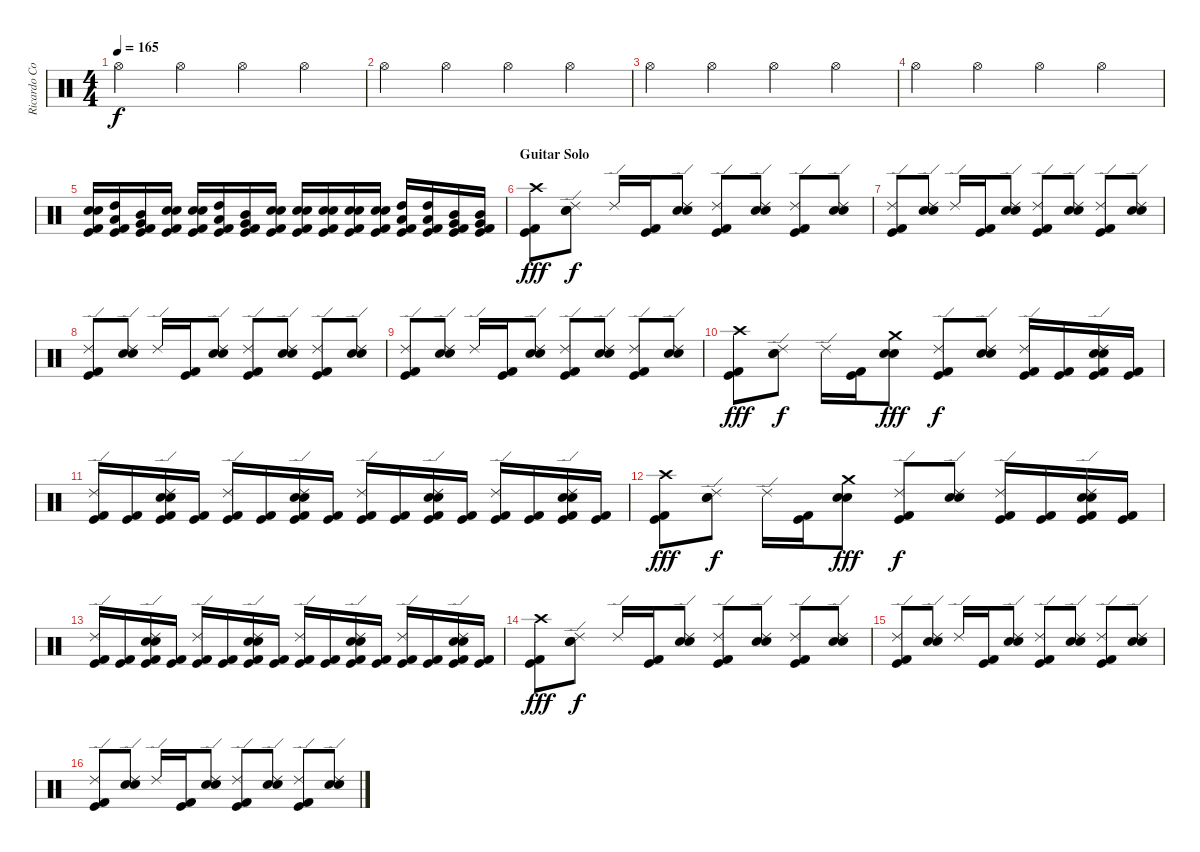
\track ("Ricardo Confessori" "Ricardo Co") {instrument percussion}
\staff {score}
\articulation defaults
\ts (4 4)
\tempo 165
\clef neutral
\ks c "Hi-Hat (open)".4{dy f} "Hi-Hat (open)".4 "Hi-Hat (open)".4 "Hi-Hat (open)".4
|
"Hi-Hat (open)".4 "Hi-Hat (open)".4 "Hi-Hat (open)".4 "Hi-Hat (open)".4 |
"Hi-Hat (open)".4 "Hi-Hat (open)".4 "Hi-Hat (open)".4 "Hi-Hat (open)".4 |
"Hi-Hat (open)".4 "Hi-Hat (open)".4 "Hi-Hat (open)".4 "Hi-Hat (open)".4 |
("Electric Snare (hit)" "Snare (hit) 2" "Kick (hit) 2" "Kick (hit)").16 ("High Tom (hit)" "Low Tom (hit)" "Kick (hit) 2" "Kick (hit)").16 ("Mid Tom (hit)" "Very Low Tom (hit)" "Kick (hit) 2" "Kick (hit)").16 ("Electric Snare (hit)" "Snare (hit) 2" "Kick (hit) 2" "Kick (hit)").16 ("Electric Snare (hit)" "Snare (hit) 2" "Kick (hit) 2" "Kick (hit)").16 ("High Tom (hit)" "Low Tom (hit)" "Kick (hit) 2" "Kick (hit)").16 ("Mid Tom (hit)" "Very Low Tom (hit)" "Kick (hit) 2" "Kick (hit)").16 ("Electric Snare (hit)" "Snare (hit) 2" "Kick (hit) 2" "Kick (hit)").16 ("Electric Snare (hit)" "Snare (hit) 2" "Kick (hit) 2" "Kick (hit)").16 ("Electric Snare (hit)" "Snare (hit) 2" "Kick (hit) 2" "Kick (hit)").16 ("Electric Snare (hit)" "Snare (hit) 2" "Kick (hit) 2" "Kick (hit)").16 ("Electric Snare (hit)" "Snare (hit) 2" "Kick (hit) 2" "Kick (hit)").16 ("High Tom (hit)" "Low Tom (hit)" "Kick (hit) 2" "Kick (hit)").16 ("High Tom (hit)" "Low Tom (hit)" "Kick (hit) 2" "Kick (hit)").16 ("Mid Tom (hit)" "Very Low Tom (hit)" "Kick (hit) 2" "Kick (hit)").16 ("Mid Tom (hit)" "Very Low Tom (hit)" "Kick (hit) 2" "Kick (hit)").16 |
\section ("" "Guitar Solo")
("Crash high (hit)" "Kick (hit) 2" "Kick (hit)").8{dy fff} ("Ride (edge) 2" "Electric Snare (hit)" "Snare (hit) 2").8{dy f} "Ride (edge) 2".16 ("Kick (hit) 2" "Kick (hit)").16 ("Ride (edge) 2" "Electric Snare (hit)" "Snare (hit) 2").8 ("Ride (edge) 2" "Kick (hit) 2" "Kick (hit)").8 ("Ride (edge) 2" "Electric Snare (hit)" "Snare (hit) 2").8 ("Ride (edge) 2" "Kick (hit) 2" "Kick (hit)").8 ("Ride (edge) 2" "Electric Snare (hit)" "Snare (hit) 2").8 |
("Ride (edge) 2" "Kick (hit) 2" "Kick (hit)").8 ("Ride (edge) 2" "Electric Snare (hit)" "Snare (hit) 2").8 "Ride (edge) 2".16 ("Kick (hit) 2" "Kick (hit)").16 ("Ride (edge) 2" "Electric Snare (hit)" "Snare (hit) 2").8 ("Ride (edge) 2" "Kick (hit) 2" "Kick (hit)").8 ("Ride (edge) 2" "Electric Snare (hit)" "Snare (hit) 2").8 ("Ride (edge) 2" "Kick (hit) 2" "Kick (hit)").8 ("Ride (edge) 2" "Electric Snare (hit)" "Snare (hit) 2").8 |
("Ride (edge) 2" "Kick (hit) 2" "Kick (hit)").8 ("Ride (edge) 2" "Electric Snare (hit)" "Snare (hit) 2").8 "Ride (edge) 2".16 ("Kick (hit) 2" "Kick (hit)").16 ("Ride (edge) 2" "Electric Snare (hit)" "Snare (hit) 2").8 ("Ride (edge) 2" "Kick (hit) 2" "Kick (hit)").8 ("Ride (edge) 2" "Electric Snare (hit)" "Snare (hit) 2").8 ("Ride (edge) 2" "Kick (hit) 2" "Kick (hit)").8 ("Ride (edge) 2" "Electric Snare (hit)" "Snare (hit) 2").8 |
("Ride (edge) 2" "Kick (hit) 2" "Kick (hit)").8 ("Ride (edge) 2" "Electric Snare (hit)" "Snare (hit) 2").8 "Ride (edge) 2".16 ("Kick (hit) 2" "Kick (hit)").16 ("Ride (edge) 2" "Electric Snare (hit)" "Snare (hit) 2").8 ("Ride (edge) 2" "Kick (hit) 2" "Kick (hit)").8 ("Ride (edge) 2" "Electric Snare (hit)" "Snare (hit) 2").8 ("Ride (edge) 2" "Kick (hit) 2" "Kick (hit)").8 ("Ride (edge) 2" "Electric Snare (hit)" "Snare (hit) 2").8 |
("Crash high (hit)" "Kick (hit) 2" "Kick (hit)").8{dy fff} ("Ride (edge) 2" "Electric Snare (hit)" "Snare (hit) 2").8{dy f} "Ride (edge) 2".16 ("Kick (hit) 2" "Kick (hit)").16 ("Crash medium (hit)" "Electric Snare (hit)" "Snare (hit) 2").8{dy fff} ("Ride (edge) 2" "Kick (hit) 2" "Kick (hit)").8{dy f} ("Ride (edge) 2" "Electric Snare (hit)" "Snare (hit) 2").8 ("Ride (edge) 2" "Kick (hit) 2" "Kick (hit)").16 ("Kick (hit) 2" "Kick (hit)").16 ("Ride (edge) 2" "Electric Snare (hit)" "Snare (hit) 2" "Kick (hit) 2" "Kick (hit)").16 ("Kick (hit) 2" "Kick (hit)").16 |
("Ride (edge) 2" "Kick (hit) 2" "Kick (hit)").16 ("Kick (hit) 2" "Kick (hit)").16 ("Ride (edge) 2" "Electric Snare (hit)" "Snare (hit) 2" "Kick (hit) 2" "Kick (hit)").16 ("Kick (hit) 2" "Kick (hit)").16 ("Ride (edge) 2" "Kick (hit) 2" "Kick (hit)").16 ("Kick (hit) 2" "Kick (hit)").16 ("Ride (edge) 2" "Electric Snare (hit)" "Snare (hit) 2" "Kick (hit) 2" "Kick (hit)").16 ("Kick (hit) 2" "Kick (hit)").16 ("Ride (edge) 2" "Kick (hit) 2" "Kick (hit)").16 ("Kick (hit) 2" "Kick (hit)").16 ("Ride (edge) 2" "Electric Snare (hit)" "Snare (hit) 2" "Kick (hit) 2" "Kick (hit)").16 ("Kick (hit) 2" "Kick (hit)").16 ("Ride (edge) 2" "Kick (hit) 2" "Kick (hit)").16 ("Kick (hit) 2" "Kick (hit)").16 ("Ride (edge) 2" "Electric Snare (hit)" "Snare (hit) 2" "Kick (hit) 2" "Kick (hit)").16 ("Kick (hit) 2" "Kick (hit)").16 |
("Crash high (hit)" "Kick (hit) 2" "Kick (hit)").8{dy fff} ("Ride (edge) 2" "Electric Snare (hit)" "Snare (hit) 2").8{dy f} "Ride (edge) 2".16 ("Kick (hit) 2" "Kick (hit)").16 ("Crash medium (hit)" "Electric Snare (hit)" "Snare (hit) 2").8{dy fff} ("Ride (edge) 2" "Kick (hit) 2" "Kick (hit)").8{dy f} ("Ride (edge) 2" "Electric Snare (hit)" "Snare (hit) 2").8 ("Ride (edge) 2" "Kick (hit) 2" "Kick (hit)").16 ("Kick (hit) 2" "Kick (hit)").16 ("Ride (edge) 2" "Electric Snare (hit)" "Snare (hit) 2" "Kick (hit) 2" "Kick (hit)").16 ("Kick (hit) 2" "Kick (hit)").16 |
("Ride (edge) 2" "Kick (hit) 2" "Kick (hit)").16 ("Kick (hit) 2" "Kick (hit)").16 ("Ride (edge) 2" "Electric Snare (hit)" "Snare (hit) 2" "Kick (hit) 2" "Kick (hit)").16 ("Kick (hit) 2" "Kick (hit)").16 ("Ride (edge) 2" "Kick (hit) 2" "Kick (hit)").16 ("Kick (hit) 2" "Kick (hit)").16 ("Ride (edge) 2" "Electric Snare (hit)" "Snare (hit) 2" "Kick (hit) 2" "Kick (hit)").16 ("Kick (hit) 2" "Kick (hit)").16 ("Ride (edge) 2" "Kick (hit) 2" "Kick (hit)").16 ("Kick (hit) 2" "Kick (hit)").16 ("Ride (edge) 2" "Electric Snare (hit)" "Snare (hit) 2" "Kick (hit) 2" "Kick (hit)").16 ("Kick (hit) 2" "Kick (hit)").16 ("Ride (edge) 2" "Kick (hit) 2" "Kick (hit)").16 ("Kick (hit) 2" "Kick (hit)").16 ("Ride (edge) 2" "Electric Snare (hit)" "Snare (hit) 2" "Kick (hit) 2" "Kick (hit)").16 ("Kick (hit) 2" "Kick (hit)").16 |
("Crash high (hit)" "Kick (hit) 2" "Kick (hit)").8{dy fff} ("Ride (edge) 2" "Electric Snare (hit)" "Snare (hit) 2").8{dy f} "Ride (edge) 2".16 ("Kick (hit) 2" "Kick (hit)").16 ("Ride (edge) 2" "Electric Snare (hit)" "Snare (hit) 2").8 ("Ride (edge) 2" "Kick (hit) 2" "Kick (hit)").8 ("Ride (edge) 2" "Electric Snare (hit)" "Snare (hit) 2").8 ("Ride (edge) 2" "Kick (hit) 2" "Kick (hit)").8 ("Ride (edge) 2" "Electric Snare (hit)" "Snare (hit) 2").8 |
("Ride (edge) 2" "Kick (hit) 2" "Kick (hit)").8 ("Ride (edge) 2" "Electric Snare (hit)" "Snare (hit) 2").8 "Ride (edge) 2".16 ("Kick (hit) 2" "Kick (hit)").16 ("Ride (edge) 2" "Electric Snare (hit)" "Snare (hit) 2").8 ("Ride (edge) 2" "Kick (hit) 2" "Kick (hit)").8 ("Ride (edge) 2" "Electric Snare (hit)" "Snare (hit) 2").8 ("Ride (edge) 2" "Kick (hit) 2" "Kick (hit)").8 ("Ride (edge) 2" "Electric Snare (hit)" "Snare (hit) 2").8 |
("Ride (edge) 2" "Kick (hit) 2" "Kick (hit)").8 ("Ride (edge) 2" "Electric Snare (hit)" "Snare (hit) 2").8 "Ride (edge) 2".16 ("Kick (hit) 2" "Kick (hit)").16 ("Ride (edge) 2" "Electric Snare (hit)" "Snare (hit) 2").8 ("Ride (edge) 2" "Kick (hit) 2" "Kick (hit)").8 ("Ride (edge) 2" "Electric Snare (hit)" "Snare (hit) 2").8 ("Ride (edge) 2" "Kick (hit) 2" "Kick (hit)").8 ("Ride (edge) 2" "Electric Snare (hit)" "Snare (hit) 2").8
